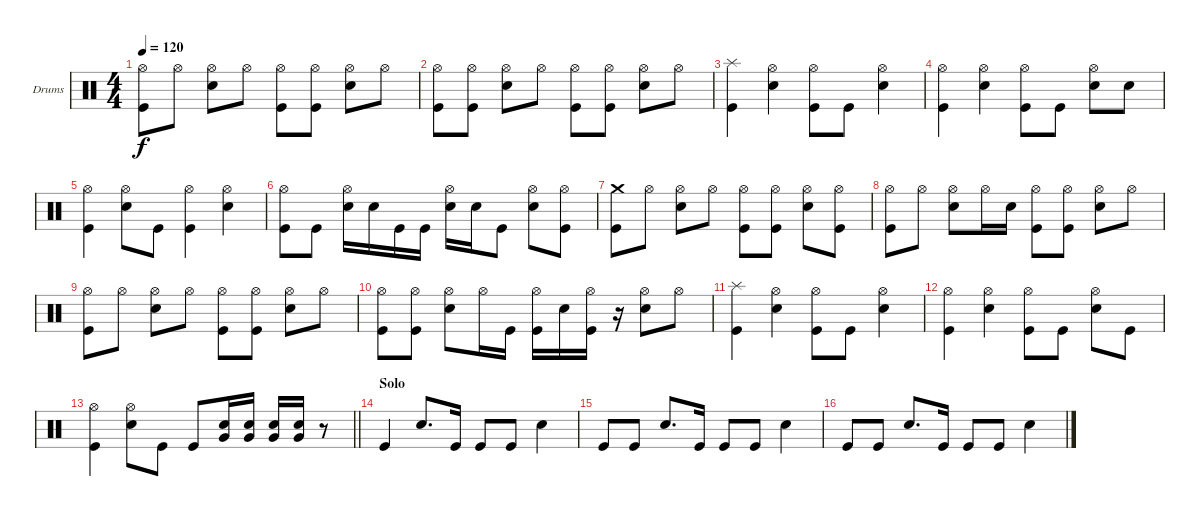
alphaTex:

\bracketExtendMode groupsimilarinstruments
\firstSystemTrackNameOrientation horizontal
\otherSystemsTrackNameOrientation horizontal
\track ("Drumkit" "Drums") {instrument percussion}
\staff {score}
\articulation defaults
\ts (4 4)
\tempo 120
\clef neutral
\ks c
("Kick (hit)" "Hi-Hat (open)").8{dy f} "Hi-Hat (open)".8 ("Snare (hit) 2" "Hi-Hat (open)").8 "Hi-Hat (open)".8 ("Kick (hit)" "Hi-Hat (open)").8 ("Kick (hit)" "Hi-Hat (open)").8 ("Snare (hit) 2" "Hi-Hat (open)").8 "Hi-Hat (open)".8 |
("Kick (hit)" "Hi-Hat (open)").8 ("Kick (hit)" "Hi-Hat (open)").8 ("Snare (hit) 2" "Hi-Hat (open)").8 "Hi-Hat (open)".8 ("Kick (hit)" "Hi-Hat (open)").8 ("Kick (hit)" "Hi-Hat (open)").8 ("Snare (hit) 2" "Hi-Hat (open)").8 "Hi-Hat (open)".8 |
("Kick (hit)" "Splash (hit)").4 ("Snare (hit) 2" "Hi-Hat (open)").4 ("Kick (hit)" "Hi-Hat (open)").8 "Kick (hit)".8 ("Snare (hit) 2" "Hi-Hat (open)").4 |
("Kick (hit)" "Hi-Hat (open)").4 ("Snare (hit) 2" "Hi-Hat (open)").4 ("Kick (hit)" "Hi-Hat (open)").8 "Kick (hit)".8 ("Snare (hit) 2" "Hi-Hat (open)").8 "Snare (hit) 2".8 |
("Kick (hit)" "Hi-Hat (open)").4 ("Snare (hit) 2" "Hi-Hat (open)").8 "Kick (hit)".8 ("Kick (hit)" "Hi-Hat (open)").4 ("Snare (hit) 2" "Hi-Hat (open)").4 |
("Kick (hit)" "Hi-Hat (open)").8 "Kick (hit)".8 ("Snare (hit) 2" "Hi-Hat (open)").16 "Snare (hit) 2".16 "Kick (hit)".16 "Kick (hit)".16 ("Snare (hit) 2" "Hi-Hat (open)").16 "Snare (hit) 2".16 "Kick (hit)".8 ("Snare (hit) 2" "Hi-Hat (open)").8 ("Kick (hit)" "Hi-Hat (open)").8 |
("Kick (hit)" "Crash medium (hit)").8 "Hi-Hat (open)".8 ("Snare (hit) 2" "Hi-Hat (open)").8 "Hi-Hat (open)".8 ("Kick (hit)" "Hi-Hat (open)").8 ("Kick (hit)" "Hi-Hat (open)").8 ("Snare (hit) 2" "Hi-Hat (open)").8 ("Kick (hit)" "Hi-Hat (open)").8 |
("Kick (hit)" "Hi-Hat (open)").8 "Hi-Hat (open)".8 ("Snare (hit) 2" "Hi-Hat (open)").8 "Hi-Hat (open)".16 "Snare (hit) 2".16 ("Kick (hit)" "Hi-Hat (open)").8 ("Kick (hit)" "Hi-Hat (open)").8 ("Snare (hit) 2" "Hi-Hat (open)").8 "Hi-Hat (open)".8 |
("Kick (hit)" "Hi-Hat (open)").8 "Hi-Hat (open)".8 ("Snare (hit) 2" "Hi-Hat (open)").8 "Hi-Hat (open)".8 ("Kick (hit)" "Hi-Hat (open)").8 ("Kick (hit)" "Hi-Hat (open)").8 ("Snare (hit) 2" "Hi-Hat (open)").8 "Hi-Hat (open)".8 |
("Kick (hit)" "Hi-Hat (open)").8 ("Kick (hit)" "Hi-Hat (open)").8 ("Snare (hit) 2" "Hi-Hat (open)").8 "Hi-Hat (open)".16 "Kick (hit)".16 ("Kick (hit)" "Hi-Hat (open)").16 "Snare (hit) 2".16 ("Kick (hit)" "Hi-Hat (open)").16 r.16 ("Snare (hit) 2" "Hi-Hat (open)").8 "Hi-Hat (open)".8 |
("Kick (hit)" "Splash (hit)").4 ("Snare (hit) 2" "Hi-Hat (open)").4 ("Kick (hit)" "Hi-Hat (open)").8 "Kick (hit)".8 ("Snare (hit) 2" "Hi-Hat (open)").4 |
("Kick (hit)" "Hi-Hat (open)").4 ("Snare (hit) 2" "Hi-Hat (open)").4 ("Kick (hit)" "Hi-Hat (open)").8 "Kick (hit)".8 ("Snare (hit) 2" "Hi-Hat (open)").8 "Kick (hit)".8 |
\barLineRight lightlight
("Kick (hit)" "Hi-Hat (open)").4 ("Snare (hit) 2" "Hi-Hat (open)").8 "Kick (hit)".8 "Kick (hit)".8 ("Snare (hit) 2" "Very Low Tom (hit)").16 ("Snare (hit) 2" "Very Low Tom (hit)").16 ("Snare (hit) 2" "Very Low Tom (hit)").16 ("Snare (hit) 2" "Very Low Tom (hit)").16 r.8 |
\section ("" "Solo")
"Kick (hit)".4 "Snare (hit) 2".8{d} "Kick (hit)".16 "Kick (hit)".8 "Kick (hit)".8 "Snare (hit) 2".4 |
"Kick (hit)".8 "Kick (hit)".8 "Snare (hit) 2".8{d} "Kick (hit)".16 "Kick (hit)".8 "Kick (hit)".8 "Snare (hit) 2".4 |
"Kick (hit)".8 "Kick (hit)".8 "Snare (hit) 2".8{d} "Kick (hit)".16 "Kick (hit)".8 "Kick (hit)".8 "Snare (hit) 2".4
